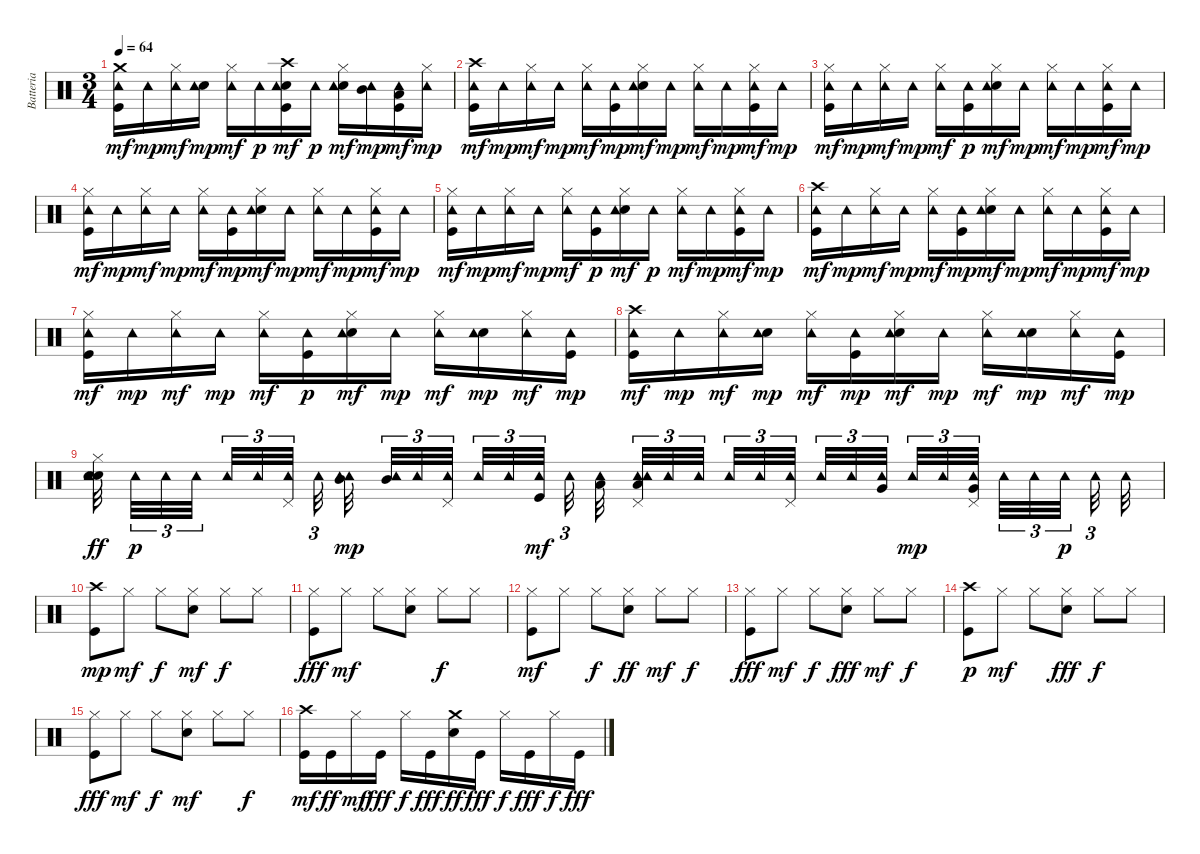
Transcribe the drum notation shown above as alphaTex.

\track ("Batteria" "Batteria") {instrument percussion}
\staff {score}
\articulation defaults
\ts (3 4)
\tempo 64
\clef neutral
\ks c
("Kick (hit)" "Crash medium (hit)" "Tambourine (hit)").16{dy mf} "Tambourine (hit)".16{dy mp} ("Hi-Hat (closed)" "Tambourine (hit)").16{dy mf} ("Electric Snare (hit)" "Tambourine (hit)").16{dy mp} ("Hi-Hat (closed)" "Tambourine (hit)").16{dy mf} "Tambourine (hit)".16{dy p} ("Kick (hit)" "Electric Snare (hit)" "Crash high (hit)" "Tambourine (hit)").16{dy mf} "Tambourine (hit)".16{dy p} ("Electric Snare (hit)" "Hi-Hat (closed)" "Tambourine (hit)").16{dy mf} ("Mid Tom (hit)" "Tambourine (hit)").16{dy mp} ("Kick (hit)" "Low Tom (hit)" "Tambourine (hit)").16{dy mf} ("Hi-Hat (closed)" "Tambourine (hit)").16{dy mp} |
("Kick (hit)" "Crash high (hit)" "Tambourine (hit)").16{dy mf} "Tambourine (hit)".16{dy mp} ("Hi-Hat (closed)" "Tambourine (hit)").16{dy mf} "Tambourine (hit)".16{dy mp} ("Hi-Hat (closed)" "Tambourine (hit)").16{dy mf} ("Kick (hit)" "Tambourine (hit)").16{dy mp} ("Electric Snare (hit)" "Hi-Hat (closed)" "Tambourine (hit)").16{dy mf} "Tambourine (hit)".16{dy mp} ("Hi-Hat (closed)" "Tambourine (hit)").16{dy mf} "Tambourine (hit)".16{dy mp} ("Kick (hit)" "Hi-Hat (closed)" "Tambourine (hit)").16{dy mf} "Tambourine (hit)".16{dy mp} |
("Kick (hit)" "Hi-Hat (closed)" "Tambourine (hit)").16{dy mf} "Tambourine (hit)".16{dy mp} ("Hi-Hat (closed)" "Tambourine (hit)").16{dy mf} "Tambourine (hit)".16{dy mp} ("Hi-Hat (closed)" "Tambourine (hit)").16{dy mf} ("Kick (hit)" "Tambourine (hit)").16{dy p} ("Electric Snare (hit)" "Hi-Hat (closed)" "Tambourine (hit)").16{dy mf} "Tambourine (hit)".16{dy mp} ("Hi-Hat (closed)" "Tambourine (hit)").16{dy mf} "Tambourine (hit)".16{dy mp} ("Kick (hit)" "Hi-Hat (closed)" "Tambourine (hit)").16{dy mf} "Tambourine (hit)".16{dy mp} |
("Kick (hit)" "Hi-Hat (closed)" "Tambourine (hit)").16{dy mf} "Tambourine (hit)".16{dy mp} ("Hi-Hat (closed)" "Tambourine (hit)").16{dy mf} "Tambourine (hit)".16{dy mp} ("Hi-Hat (closed)" "Tambourine (hit)").16{dy mf} ("Kick (hit)" "Tambourine (hit)").16{dy mp} ("Electric Snare (hit)" "Hi-Hat (closed)" "Tambourine (hit)").16{dy mf} "Tambourine (hit)".16{dy mp} ("Hi-Hat (closed)" "Tambourine (hit)").16{dy mf} "Tambourine (hit)".16{dy mp} ("Kick (hit)" "Hi-Hat (closed)" "Tambourine (hit)").16{dy mf} "Tambourine (hit)".16{dy mp} |
("Kick (hit)" "Hi-Hat (closed)" "Tambourine (hit)").16{dy mf} "Tambourine (hit)".16{dy mp} ("Hi-Hat (closed)" "Tambourine (hit)").16{dy mf} "Tambourine (hit)".16{dy mp} ("Hi-Hat (closed)" "Tambourine (hit)").16{dy mf} ("Kick (hit)" "Tambourine (hit)").16{dy p} ("Electric Snare (hit)" "Hi-Hat (closed)" "Tambourine (hit)").16{dy mf} "Tambourine (hit)".16{dy p} ("Hi-Hat (closed)" "Tambourine (hit)").16{dy mf} "Tambourine (hit)".16{dy mp} ("Kick (hit)" "Hi-Hat (closed)" "Tambourine (hit)").16{dy mf} "Tambourine (hit)".16{dy mp} |
("Kick (hit)" "Crash high (hit)" "Tambourine (hit)").16{dy mf} "Tambourine (hit)".16{dy mp} ("Hi-Hat (closed)" "Tambourine (hit)").16{dy mf} "Tambourine (hit)".16{dy mp} ("Hi-Hat (closed)" "Tambourine (hit)").16{dy mf} ("Kick (hit)" "Tambourine (hit)").16{dy mp} ("Electric Snare (hit)" "Hi-Hat (closed)" "Tambourine (hit)").16{dy mf} "Tambourine (hit)".16{dy mp} ("Hi-Hat (closed)" "Tambourine (hit)").16{dy mf} "Tambourine (hit)".16{dy mp} ("Kick (hit)" "Hi-Hat (closed)" "Tambourine (hit)").16{dy mf} "Tambourine (hit)".16{dy mp} |
("Kick (hit)" "Hi-Hat (closed)" "Tambourine (hit)").16{dy mf} "Tambourine (hit)".16{dy mp} ("Hi-Hat (closed)" "Tambourine (hit)").16{dy mf} "Tambourine (hit)".16{dy mp} ("Hi-Hat (closed)" "Tambourine (hit)").16{dy mf} ("Kick (hit)" "Tambourine (hit)").16{dy p} ("Electric Snare (hit)" "Hi-Hat (closed)" "Tambourine (hit)").16{dy mf} "Tambourine (hit)".16{dy mp} ("Hi-Hat (closed)" "Tambourine (hit)").16{dy mf} ("Electric Snare (hit)" "Tambourine (hit)").16{dy mp} ("Hi-Hat (closed)" "Tambourine (hit)").16{dy mf} ("Kick (hit)" "Tambourine (hit)").16{dy mp} |
("Kick (hit)" "Crash high (hit)" "Tambourine (hit)").16{dy mf} "Tambourine (hit)".16{dy mp} ("Hi-Hat (closed)" "Tambourine (hit)").16{dy mf} ("Electric Snare (hit)" "Tambourine (hit)").16{dy mp} ("Hi-Hat (closed)" "Tambourine (hit)").16{dy mf} ("Kick (hit)" "Tambourine (hit)").16{dy mp} ("Electric Snare (hit)" "Hi-Hat (closed)" "Tambourine (hit)").16{dy mf} "Tambourine (hit)".16{dy mp} ("Hi-Hat (closed)" "Tambourine (hit)").16{dy mf} ("Electric Snare (hit)" "Tambourine (hit)").16{dy mp} ("Hi-Hat (closed)" "Tambourine (hit)").16{dy mf} ("Kick (hit)" "Tambourine (hit)").16{dy mp} |
("Electric Snare (hit)" "Hi-Hat (closed)" "Tambourine (hit)" "Electric Snare (hit)").32{dy ff beam splitsecondary} "Tambourine (hit)".32{tu (3 2) dy p} "Tambourine (hit)".32{tu (3 2)} "Tambourine (hit)".32{tu (3 2) beam splitsecondary} "Tambourine (hit)".32{tu (3 2)} "Tambourine (hit)".32{tu (3 2)} ("Pedal Hi-Hat (hit)" "Tambourine (hit)").32{tu (3 2) beam splitsecondary} "Tambourine (hit)".32{tu (3 2) beam splitsecondary} ("Tambourine (hit)" "Mid Tom (hit)" "Tambourine (hit)").32{dy mp beam splitsecondary} ("Mid Tom (hit)" "Tambourine (hit)").32{tu (3 2)} "Tambourine (hit)".32{tu (3 2)} ("Pedal Hi-Hat (hit)" "Tambourine (hit)").32{tu (3 2) beam splitsecondary} "Tambourine (hit)".32{tu (3 2)} "Tambourine (hit)".32{tu (3 2)} ("Kick (hit)" "Tambourine (hit)").32{tu (3 2) dy mf beam splitsecondary} "Tambourine (hit)".32{tu (3 2) beam splitsecondary} ("Tambourine (hit)" "Low Tom (hit)").32{beam splitsecondary} ("Pedal Hi-Hat (hit)" "Tambourine (hit)" "Low Tom (hit)" "Tambourine (hit)").32{tu (3 2)} "Tambourine (hit)".32{tu (3 2)} "Tambourine (hit)".32{tu (3 2) beam splitsecondary} "Tambourine (hit)".32{tu (3 2)} "Tambourine (hit)".32{tu (3 2)} ("Pedal Hi-Hat (hit)" "Tambourine (hit)").32{tu (3 2)} "Tambourine (hit)".32{tu (3 2)} "Tambourine (hit)".32{tu (3 2)} ("Very Low Tom (hit)" "Tambourine (hit)").32{tu (3 2) beam splitsecondary} "Tambourine (hit)".32{tu (3 2) dy mp} "Tambourine (hit)".32{tu (3 2)} ("Very Low Tom (hit)" "Pedal Hi-Hat (hit)" "Tambourine (hit)").32{tu (3 2) beam splitsecondary} "Tambourine (hit)".32{tu (3 2)} "Tambourine (hit)".32{tu (3 2)} "Tambourine (hit)".32{tu (3 2) dy p beam splitsecondary} "Tambourine (hit)".32{tu (3 2)} "Tambourine (hit)".32 |
("Kick (hit)" "Crash high (hit)").8{dy mp} "Hi-Hat (closed)".8{dy mf} "Hi-Hat (closed)".8{dy f} ("Electric Snare (hit)" "Hi-Hat (closed)").8{dy mf} "Hi-Hat (closed)".8{dy f} "Hi-Hat (closed)".8 |
("Kick (hit)" "Hi-Hat (closed)").8{dy fff} "Hi-Hat (closed)".8{dy mf} "Hi-Hat (closed)".8 ("Electric Snare (hit)" "Hi-Hat (closed)").8 "Hi-Hat (closed)".8{dy f} "Hi-Hat (closed)".8 |
("Kick (hit)" "Hi-Hat (closed)").8{dy mf} "Hi-Hat (closed)".8 "Hi-Hat (closed)".8{dy f} ("Electric Snare (hit)" "Hi-Hat (closed)").8{dy ff} "Hi-Hat (closed)".8{dy mf} "Hi-Hat (closed)".8{dy f} |
("Kick (hit)" "Hi-Hat (closed)").8{dy fff} "Hi-Hat (closed)".8{dy mf} "Hi-Hat (closed)".8{dy f} ("Electric Snare (hit)" "Hi-Hat (closed)").8{dy fff} "Hi-Hat (closed)".8{dy mf} "Hi-Hat (closed)".8{dy f} |
("Kick (hit)" "Crash high (hit)").8{dy p} "Hi-Hat (closed)".8{dy mf} "Hi-Hat (closed)".8 ("Electric Snare (hit)" "Hi-Hat (closed)").8{dy fff} "Hi-Hat (closed)".8{dy f} "Hi-Hat (closed)".8 |
("Kick (hit)" "Hi-Hat (closed)").8{dy fff} "Hi-Hat (closed)".8{dy mf} "Hi-Hat (closed)".8{dy f} ("Electric Snare (hit)" "Hi-Hat (closed)").8{dy mf} "Hi-Hat (closed)".8 "Hi-Hat (closed)".8{dy f} |
("Kick (hit)" "Crash high (hit)").16{dy mf} "Kick (hit)".16{dy ff} "Hi-Hat (closed)".16{dy mf} "Kick (hit)".16{dy fff} "Hi-Hat (closed)".16{dy f} "Kick (hit)".16{dy fff} ("Electric Snare (hit)" "Crash medium (hit)").16{dy ff} "Kick (hit)".16{dy fff} "Hi-Hat (closed)".16{dy f} "Kick (hit)".16{dy fff} "Hi-Hat (closed)".16{dy f} "Kick (hit)".16{dy fff}
